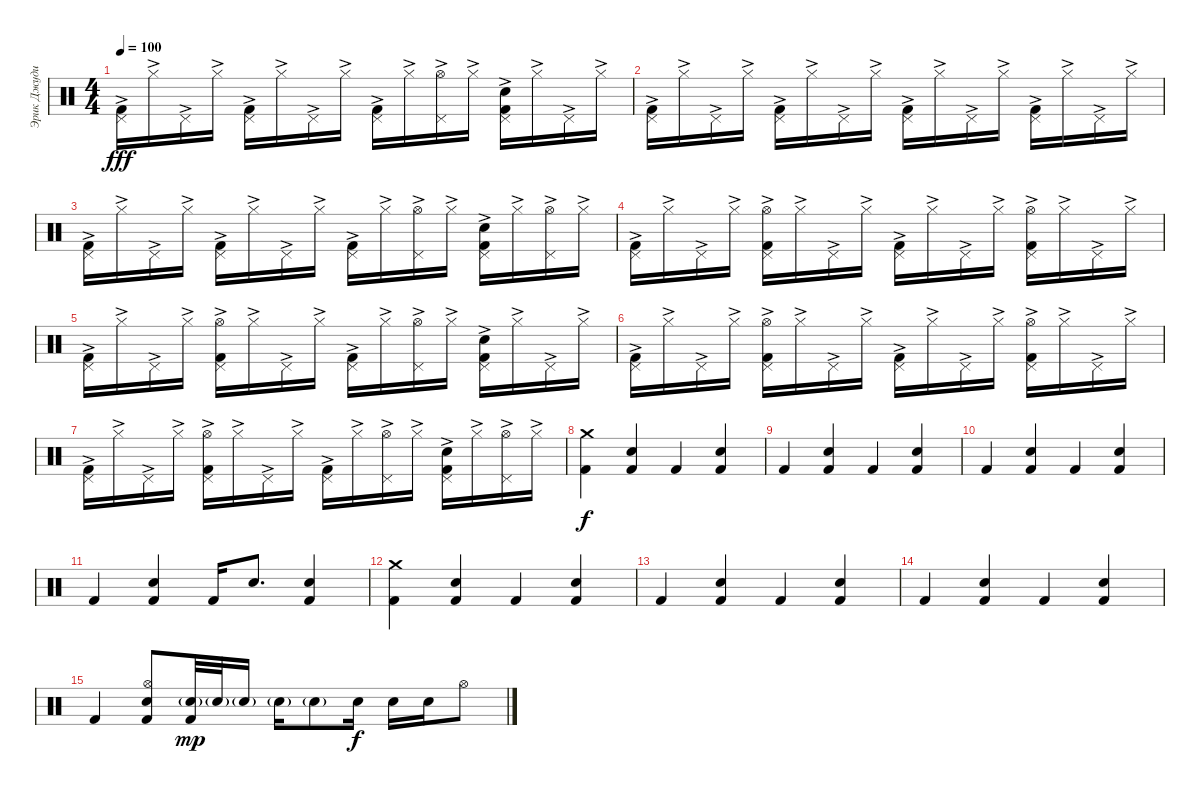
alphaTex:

\track ("Эрик Джуди" "Эрик Джуди") {instrument percussion}
\staff {score}
\articulation defaults
\ts (4 4)
\tempo 100
\clef neutral
\ks c
("Pedal Hi-Hat (hit)"{ac} "Kick (hit) 2"{ac}).16{dy fff} "Hi-Hat (closed)"{ac}.16 "Pedal Hi-Hat (hit)"{ac}.16 "Hi-Hat (closed)"{ac}.16 ("Pedal Hi-Hat (hit)"{ac} "Kick (hit) 2"{ac}).16 "Hi-Hat (closed)"{ac}.16 "Pedal Hi-Hat (hit)"{ac}.16 "Hi-Hat (closed)"{ac}.16 ("Pedal Hi-Hat (hit)"{ac} "Kick (hit) 2"{ac}).16 "Hi-Hat (closed)"{ac}.16 ("Pedal Hi-Hat (hit)"{ac} "Hi-Hat (open)"{ac}).16 "Hi-Hat (closed)"{ac}.16 ("Pedal Hi-Hat (hit)"{ac} "Electric Snare (hit)"{ac} "Kick (hit) 2"{ac}).16 "Hi-Hat (closed)"{ac}.16 "Pedal Hi-Hat (hit)"{ac}.16 "Hi-Hat (closed)"{ac}.16 |
("Pedal Hi-Hat (hit)"{ac} "Kick (hit) 2"{ac}).16 "Hi-Hat (closed)"{ac}.16 "Pedal Hi-Hat (hit)"{ac}.16 "Hi-Hat (closed)"{ac}.16 ("Pedal Hi-Hat (hit)"{ac} "Kick (hit) 2"{ac}).16 "Hi-Hat (closed)"{ac}.16 "Pedal Hi-Hat (hit)"{ac}.16 "Hi-Hat (closed)"{ac}.16 ("Pedal Hi-Hat (hit)"{ac} "Kick (hit) 2"{ac}).16 "Hi-Hat (closed)"{ac}.16 "Pedal Hi-Hat (hit)"{ac}.16 "Hi-Hat (closed)"{ac}.16 ("Pedal Hi-Hat (hit)"{ac} "Kick (hit) 2"{ac}).16 "Hi-Hat (closed)"{ac}.16 "Pedal Hi-Hat (hit)"{ac}.16 "Hi-Hat (closed)"{ac}.16 |
("Pedal Hi-Hat (hit)"{ac} "Kick (hit) 2"{ac}).16 "Hi-Hat (closed)"{ac}.16 "Pedal Hi-Hat (hit)"{ac}.16 "Hi-Hat (closed)"{ac}.16 ("Pedal Hi-Hat (hit)"{ac} "Kick (hit) 2"{ac}).16 "Hi-Hat (closed)"{ac}.16 "Pedal Hi-Hat (hit)"{ac}.16 "Hi-Hat (closed)"{ac}.16 ("Pedal Hi-Hat (hit)"{ac} "Kick (hit) 2"{ac}).16 "Hi-Hat (closed)"{ac}.16 ("Pedal Hi-Hat (hit)"{ac} "Hi-Hat (open)"{ac}).16 "Hi-Hat (closed)"{ac}.16 ("Pedal Hi-Hat (hit)"{ac} "Electric Snare (hit)"{ac} "Kick (hit) 2"{ac}).16 "Hi-Hat (closed)"{ac}.16 ("Pedal Hi-Hat (hit)"{ac} "Hi-Hat (open)"{ac}).16 "Hi-Hat (closed)"{ac}.16 |
("Pedal Hi-Hat (hit)"{ac} "Kick (hit) 2"{ac}).16 "Hi-Hat (closed)"{ac}.16 "Pedal Hi-Hat (hit)"{ac}.16 "Hi-Hat (closed)"{ac}.16 ("Pedal Hi-Hat (hit)"{ac} "Hi-Hat (open)"{ac} "Kick (hit) 2"{ac}).16 "Hi-Hat (closed)"{ac}.16 "Pedal Hi-Hat (hit)"{ac}.16 "Hi-Hat (closed)"{ac}.16 ("Pedal Hi-Hat (hit)"{ac} "Kick (hit) 2"{ac}).16 "Hi-Hat (closed)"{ac}.16 "Pedal Hi-Hat (hit)"{ac}.16 "Hi-Hat (closed)"{ac}.16 ("Pedal Hi-Hat (hit)"{ac} "Hi-Hat (open)"{ac} "Kick (hit) 2"{ac}).16 "Hi-Hat (closed)"{ac}.16 "Pedal Hi-Hat (hit)"{ac}.16 "Hi-Hat (closed)"{ac}.16 |
("Pedal Hi-Hat (hit)"{ac} "Kick (hit) 2"{ac}).16 "Hi-Hat (closed)"{ac}.16 "Pedal Hi-Hat (hit)"{ac}.16 "Hi-Hat (closed)"{ac}.16 ("Pedal Hi-Hat (hit)"{ac} "Hi-Hat (open)"{ac} "Kick (hit) 2"{ac}).16 "Hi-Hat (closed)"{ac}.16 "Pedal Hi-Hat (hit)"{ac}.16 "Hi-Hat (closed)"{ac}.16 ("Pedal Hi-Hat (hit)"{ac} "Kick (hit) 2"{ac}).16 "Hi-Hat (closed)"{ac}.16 ("Pedal Hi-Hat (hit)"{ac} "Hi-Hat (open)"{ac}).16 "Hi-Hat (closed)"{ac}.16 ("Pedal Hi-Hat (hit)"{ac} "Electric Snare (hit)"{ac} "Kick (hit) 2"{ac}).16 "Hi-Hat (closed)"{ac}.16 "Pedal Hi-Hat (hit)"{ac}.16 "Hi-Hat (closed)"{ac}.16 |
("Pedal Hi-Hat (hit)"{ac} "Kick (hit) 2"{ac}).16 "Hi-Hat (closed)"{ac}.16 "Pedal Hi-Hat (hit)"{ac}.16 "Hi-Hat (closed)"{ac}.16 ("Pedal Hi-Hat (hit)"{ac} "Hi-Hat (open)"{ac} "Kick (hit) 2"{ac}).16 "Hi-Hat (closed)"{ac}.16 "Pedal Hi-Hat (hit)"{ac}.16 "Hi-Hat (closed)"{ac}.16 ("Pedal Hi-Hat (hit)"{ac} "Kick (hit) 2"{ac}).16 "Hi-Hat (closed)"{ac}.16 "Pedal Hi-Hat (hit)"{ac}.16 "Hi-Hat (closed)"{ac}.16 ("Pedal Hi-Hat (hit)"{ac} "Hi-Hat (open)"{ac} "Kick (hit) 2"{ac}).16 "Hi-Hat (closed)"{ac}.16 "Pedal Hi-Hat (hit)"{ac}.16 "Hi-Hat (closed)"{ac}.16 |
("Pedal Hi-Hat (hit)"{ac} "Kick (hit) 2"{ac}).16 "Hi-Hat (closed)"{ac}.16 "Pedal Hi-Hat (hit)"{ac}.16 "Hi-Hat (closed)"{ac}.16 ("Pedal Hi-Hat (hit)"{ac} "Hi-Hat (open)"{ac} "Kick (hit) 2"{ac}).16 "Hi-Hat (closed)"{ac}.16 "Pedal Hi-Hat (hit)"{ac}.16 "Hi-Hat (closed)"{ac}.16 ("Pedal Hi-Hat (hit)"{ac} "Kick (hit) 2"{ac}).16 "Hi-Hat (closed)"{ac}.16 ("Pedal Hi-Hat (hit)"{ac} "Hi-Hat (open)"{ac}).16 "Hi-Hat (closed)"{ac}.16 ("Pedal Hi-Hat (hit)"{ac} "Electric Snare (hit)"{ac} "Kick (hit) 2"{ac}).16 "Hi-Hat (closed)"{ac}.16 ("Pedal Hi-Hat (hit)"{ac} "Hi-Hat (open)"{ac}).16 "Hi-Hat (closed)"{ac}.16 |
("Crash medium (hit)" "Kick (hit) 2").4{dy f} ("Electric Snare (hit)" "Kick (hit) 2").4 "Kick (hit) 2".4 ("Electric Snare (hit)" "Kick (hit) 2").4 |
"Kick (hit) 2".4 ("Electric Snare (hit)" "Kick (hit) 2").4 "Kick (hit) 2".4 ("Electric Snare (hit)" "Kick (hit) 2").4 |
"Kick (hit) 2".4 ("Electric Snare (hit)" "Kick (hit) 2").4 "Kick (hit) 2".4 ("Electric Snare (hit)" "Kick (hit) 2").4 |
"Kick (hit) 2".4 ("Electric Snare (hit)" "Kick (hit) 2").4 "Kick (hit) 2".16 "Electric Snare (hit)".8{d} ("Electric Snare (hit)" "Kick (hit) 2").4 |
("Crash medium (hit)" "Kick (hit) 2").4 ("Electric Snare (hit)" "Kick (hit) 2").4 "Kick (hit) 2".4 ("Electric Snare (hit)" "Kick (hit) 2").4 |
"Kick (hit) 2".4 ("Electric Snare (hit)" "Kick (hit) 2").4 "Kick (hit) 2".4 ("Electric Snare (hit)" "Kick (hit) 2").4 |
"Kick (hit) 2".4 ("Electric Snare (hit)" "Kick (hit) 2").4 "Kick (hit) 2".4 ("Electric Snare (hit)" "Kick (hit) 2").4 |
"Kick (hit) 2".4 ("Hi-Hat (open)" "Electric Snare (hit)" "Kick (hit) 2").8 ("Electric Snare (hit)"{g} "Kick (hit) 2").32{dy mp} "Electric Snare (hit)"{g}.32 "Electric Snare (hit)"{g}.16 "Electric Snare (hit)"{g}.16 "Electric Snare (hit)"{g}.8 "Electric Snare (hit)".16{dy f} "Electric Snare (hit)".16 "Electric Snare (hit)".16 "Hi-Hat (open)".8
